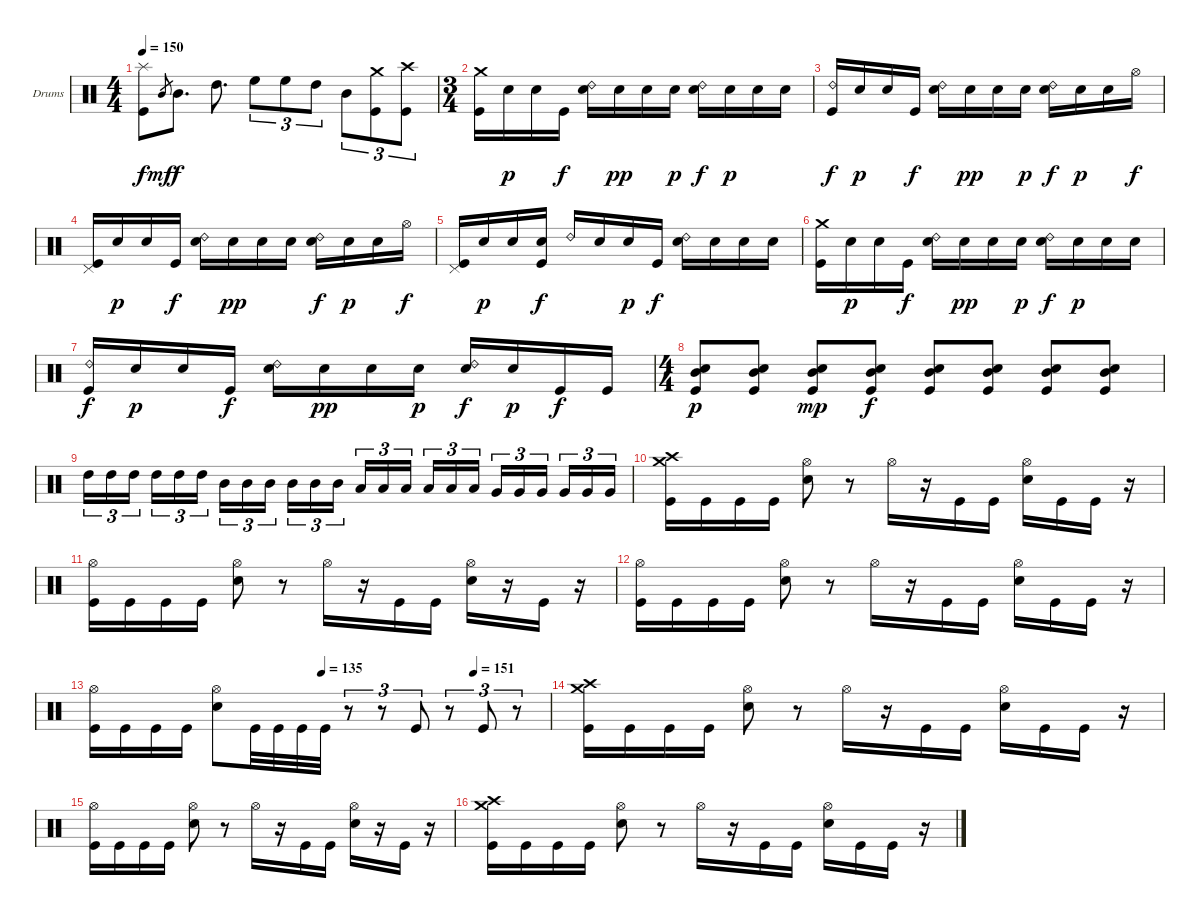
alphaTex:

\bracketExtendMode groupsimilarinstruments
\firstSystemTrackNameOrientation horizontal
\otherSystemsTrackNameOrientation horizontal
\track ("Ударные" "Drums") {instrument percussion}
\staff {score}
\articulation defaults
\ts (4 4)
\tempo 150
\clef neutral
\ks c
("Splash (hit)" "Kick (hit)").8{dy f} "Mid Tom (hit)".8{gr dy mf} "Mid Tom (hit)".8{d dy f} "High Tom (hit)".8{d} "High Floor Tom (hit)".8{tu (3 2)} "High Floor Tom (hit)".8{tu (3 2)} "High Tom (hit)".8{tu (3 2)} "Mid Tom (hit)".8{tu (3 2)} ("Crash medium (hit)" "Kick (hit)").8{tu (3 2)} ("Crash high (hit)" "Kick (hit)").8{tu (3 2)} |
\ts (3 4)
\beaming (8 2 2 2)
("Crash medium (hit)" "Kick (hit)").16 "Snare (hit) 2".16{dy p} "Snare (hit) 2".16 "Kick (hit)".16{dy f} ("Ride (bell) 2" "Snare (hit) 2").16 "Snare (hit) 2".16{dy pp} "Snare (hit) 2".16 "Snare (hit) 2".16{dy p} ("Ride (bell) 2" "Snare (hit) 2").16{dy f} "Snare (hit) 2".16{dy p} "Snare (hit) 2".16 "Snare (hit) 2".16 |
\beaming (8 2 2 2 2)
("Ride (bell) 2" "Kick (hit)").16{dy f} "Snare (hit) 2".16{dy p} "Snare (hit) 2".16 "Kick (hit)".16{dy f} ("Ride (bell) 2" "Snare (hit) 2").16 "Snare (hit) 2".16{dy pp} "Snare (hit) 2".16 "Snare (hit) 2".16{dy p} ("Ride (bell) 2" "Snare (hit) 2").16{dy f} "Snare (hit) 2".16{dy p} "Snare (hit) 2".16 "Hi-Hat (open)".16{dy f} |
("Pedal Hi-Hat (hit)" "Kick (hit)").16 "Snare (hit) 2".16{dy p} "Snare (hit) 2".16 "Kick (hit)".16{dy f} ("Ride (bell) 2" "Snare (hit) 2").16 "Snare (hit) 2".16{dy pp} "Snare (hit) 2".16 "Snare (hit) 2".16 ("Ride (bell) 2" "Snare (hit) 2").16{dy f} "Snare (hit) 2".16{dy p} "Snare (hit) 2".16 "Hi-Hat (open)".16{dy f} |
("Pedal Hi-Hat (hit)" "Kick (hit)").16 "Snare (hit) 2".16{dy p} "Snare (hit) 2".16 ("Snare (hit) 2" "Kick (hit)").16{dy f} "Ride (bell) 2".16 "Snare (hit) 2".16 "Snare (hit) 2".16{dy p} "Kick (hit)".16{dy f} ("Ride (bell) 2" "Snare (hit) 2").16 "Snare (hit) 2".16 "Snare (hit) 2".16 "Snare (hit) 2".16 |
("Crash medium (hit)" "Kick (hit)").16 "Snare (hit) 2".16{dy p} "Snare (hit) 2".16 "Kick (hit)".16{dy f} ("Ride (bell) 2" "Snare (hit) 2").16 "Snare (hit) 2".16{dy pp} "Snare (hit) 2".16 "Snare (hit) 2".16{dy p} ("Ride (bell) 2" "Snare (hit) 2").16{dy f} "Snare (hit) 2".16{dy p} "Snare (hit) 2".16 "Snare (hit) 2".16 |
("Ride (bell) 2" "Kick (hit)").16{dy f} "Snare (hit) 2".16{dy p} "Snare (hit) 2".16 "Kick (hit)".16{dy f} ("Ride (bell) 2" "Snare (hit) 2").16 "Snare (hit) 2".16{dy pp} "Snare (hit) 2".16 "Snare (hit) 2".16{dy p} ("Ride (bell) 2" "Snare (hit) 2").16{dy f} "Snare (hit) 2".16{dy p} "Kick (hit)".16{dy f} "Kick (hit)".16 |
\ts (4 4)
\beaming (8 2 2 2 2)
("Snare (hit) 2" "Mid Tom (hit)" "Kick (hit)").8{dy p} ("Snare (hit) 2" "Mid Tom (hit)" "Kick (hit)").8 ("Snare (hit) 2" "Mid Tom (hit)" "Kick (hit)").8{dy mp} ("Snare (hit) 2" "Mid Tom (hit)" "Kick (hit)").8{dy f} ("Snare (hit) 2" "Mid Tom (hit)" "Kick (hit)").8 ("Snare (hit) 2" "Mid Tom (hit)" "Kick (hit)").8 ("Snare (hit) 2" "Mid Tom (hit)" "Kick (hit)").8 ("Snare (hit) 2" "Mid Tom (hit)" "Kick (hit)").8 |
"High Tom (hit)".16{tu (3 2)} "High Tom (hit)".16{tu (3 2)} "High Tom (hit)".16{tu (3 2)} "High Tom (hit)".16{tu (3 2)} "High Tom (hit)".16{tu (3 2)} "High Tom (hit)".16{tu (3 2)} "Mid Tom (hit)".16{tu (3 2)} "Mid Tom (hit)".16{tu (3 2)} "Mid Tom (hit)".16{tu (3 2)} "Mid Tom (hit)".16{tu (3 2)} "Mid Tom (hit)".16{tu (3 2)} "Mid Tom (hit)".16{tu (3 2)} "Low Tom (hit)".16{tu (3 2)} "Low Tom (hit)".16{tu (3 2)} "Low Tom (hit)".16{tu (3 2)} "Low Tom (hit)".16{tu (3 2)} "Low Tom (hit)".16{tu (3 2)} "Low Tom (hit)".16{tu (3 2)} "Very Low Tom (hit)".16{tu (3 2)} "Very Low Tom (hit)".16{tu (3 2)} "Very Low Tom (hit)".16{tu (3 2)} "Very Low Tom (hit)".16{tu (3 2)} "Very Low Tom (hit)".16{tu (3 2)} "Very Low Tom (hit)".16{tu (3 2)} |
("Crash medium (hit)" "Crash high (hit)" "Kick (hit)").16 "Kick (hit)".16 "Kick (hit)".16 "Kick (hit)".16 ("Hi-Hat (open)" "Snare (hit) 2").8 r.8 "Hi-Hat (open)".16 r.16 "Kick (hit)".16 "Kick (hit)".16 ("Hi-Hat (open)" "Snare (hit) 2").16 "Kick (hit)".16 "Kick (hit)".16 r.16 |
("Hi-Hat (open)" "Kick (hit)").16 "Kick (hit)".16 "Kick (hit)".16 "Kick (hit)".16 ("Hi-Hat (open)" "Snare (hit) 2").8 r.8 "Hi-Hat (open)".16 r.16 "Kick (hit)".16 "Kick (hit)".16 ("Hi-Hat (open)" "Snare (hit) 2").16 r.16 "Kick (hit)".16 r.16 |
("Hi-Hat (open)" "Kick (hit)").16 "Kick (hit)".16 "Kick (hit)".16 "Kick (hit)".16 ("Hi-Hat (open)" "Snare (hit) 2").8 r.8 "Hi-Hat (open)".16 r.16 "Kick (hit)".16 "Kick (hit)".16 ("Hi-Hat (open)" "Snare (hit) 2").16 "Kick (hit)".16 "Kick (hit)".16 r.16 |
\tempo (135 0.5)
\tempo (151 0.833333)
("Hi-Hat (open)" "Kick (hit)").16 "Kick (hit)".16 "Kick (hit)".16 "Kick (hit)".16 ("Hi-Hat (open)" "Snare (hit) 2").8 "Kick (hit)".32 "Kick (hit)".32 "Kick (hit)".32 "Kick (hit)".32 r.8{tu (3 2)} r.8{tu (3 2)} "Kick (hit)".8{tu (3 2)} r.8{tu (3 2)} "Kick (hit)".8{tu (3 2)} r.8{tu (3 2)} |
("Crash medium (hit)" "Crash high (hit)" "Kick (hit)").16 "Kick (hit)".16 "Kick (hit)".16 "Kick (hit)".16 ("Hi-Hat (open)" "Snare (hit) 2").8 r.8 "Hi-Hat (open)".16 r.16 "Kick (hit)".16 "Kick (hit)".16 ("Hi-Hat (open)" "Snare (hit) 2").16 "Kick (hit)".16 "Kick (hit)".16 r.16 |
("Hi-Hat (open)" "Kick (hit)").16 "Kick (hit)".16 "Kick (hit)".16 "Kick (hit)".16 ("Hi-Hat (open)" "Snare (hit) 2").8 r.8 "Hi-Hat (open)".16 r.16 "Kick (hit)".16 "Kick (hit)".16 ("Hi-Hat (open)" "Snare (hit) 2").16 r.16 "Kick (hit)".16 r.16 |
("Crash medium (hit)" "Crash high (hit)" "Kick (hit)").16 "Kick (hit)".16 "Kick (hit)".16 "Kick (hit)".16 ("Hi-Hat (open)" "Snare (hit) 2").8 r.8 "Hi-Hat (open)".16 r.16 "Kick (hit)".16 "Kick (hit)".16 ("Hi-Hat (open)" "Snare (hit) 2").16 "Kick (hit)".16 "Kick (hit)".16 r.16
